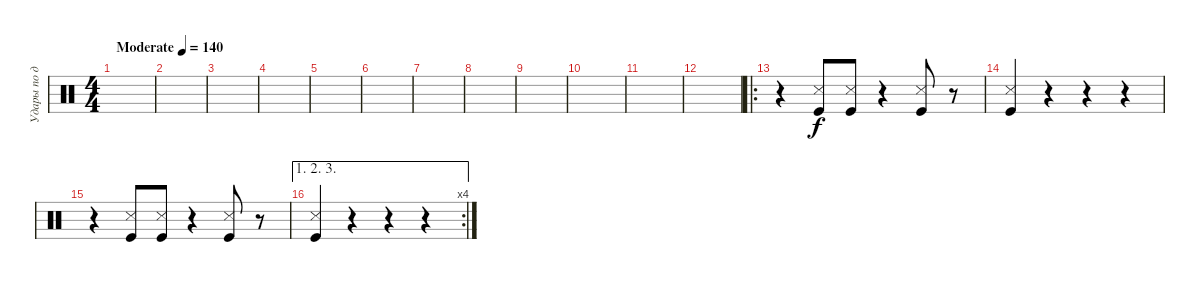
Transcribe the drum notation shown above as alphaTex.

\track ("Удары по деке" "Удары по д") {instrument percussion}
\staff {score}
\articulation defaults
\ts (4 4)
\tempo (140 "Moderate")
\clef neutral
\ks c
|
|
|
|
|
|
|
|
|
|
|
|
\ro
r.4 ("Snare (side stick) 3" "Kick (hit)").8 ("Snare (side stick) 3" "Kick (hit)").8 r.4 ("Snare (side stick) 3" "Kick (hit)").8 r.8 |
("Snare (side stick) 3" "Kick (hit)").4 r.4 r.4 r.4 |
r.4 ("Snare (side stick) 3" "Kick (hit)").8 ("Snare (side stick) 3" "Kick (hit)").8 r.4 ("Snare (side stick) 3" "Kick (hit)").8 r.8 |
\ae (1 2 3)
\rc 4
("Snare (side stick) 3" "Kick (hit)").4 r.4 r.4 r.4
